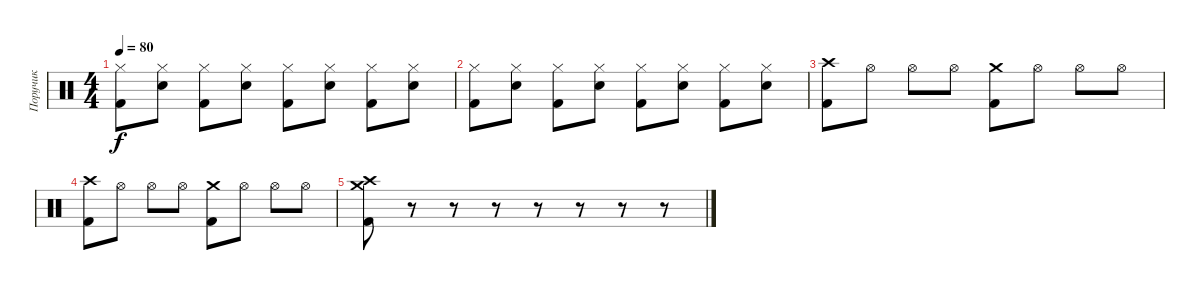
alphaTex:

\track ("Поручик" "Поручик") {instrument percussion}
\staff {score}
\articulation defaults
\ts (4 4)
\tempo 80
\clef neutral
\ks c
("Hi-Hat (closed)" "Kick (hit) 2").8{dy f} ("Hi-Hat (closed)" "Electric Snare (hit)").8 ("Hi-Hat (closed)" "Kick (hit) 2").8 ("Hi-Hat (closed)" "Electric Snare (hit)").8 ("Hi-Hat (closed)" "Kick (hit) 2").8 ("Hi-Hat (closed)" "Electric Snare (hit)").8 ("Hi-Hat (closed)" "Kick (hit) 2").8 ("Hi-Hat (closed)" "Electric Snare (hit)").8 |
("Hi-Hat (closed)" "Kick (hit) 2").8 ("Hi-Hat (closed)" "Electric Snare (hit)").8 ("Hi-Hat (closed)" "Kick (hit) 2").8 ("Hi-Hat (closed)" "Electric Snare (hit)").8 ("Hi-Hat (closed)" "Kick (hit) 2").8 ("Hi-Hat (closed)" "Electric Snare (hit)").8 ("Hi-Hat (closed)" "Kick (hit) 2").8 ("Hi-Hat (closed)" "Electric Snare (hit)").8 |
("Crash high (hit)" "Kick (hit) 2").8 "Hi-Hat (open)".8 "Hi-Hat (open)".8 "Hi-Hat (open)".8 ("Crash medium (hit)" "Kick (hit) 2").8 "Hi-Hat (open)".8 "Hi-Hat (open)".8 "Hi-Hat (open)".8 |
("Crash high (hit)" "Kick (hit) 2").8 "Hi-Hat (open)".8 "Hi-Hat (open)".8 "Hi-Hat (open)".8 ("Crash medium (hit)" "Kick (hit) 2").8 "Hi-Hat (open)".8 "Hi-Hat (open)".8 "Hi-Hat (open)".8 |
("Crash high (hit)" "Crash medium (hit)" "Kick (hit) 2").8 r.8 r.8 r.8 r.8 r.8 r.8 r.8
